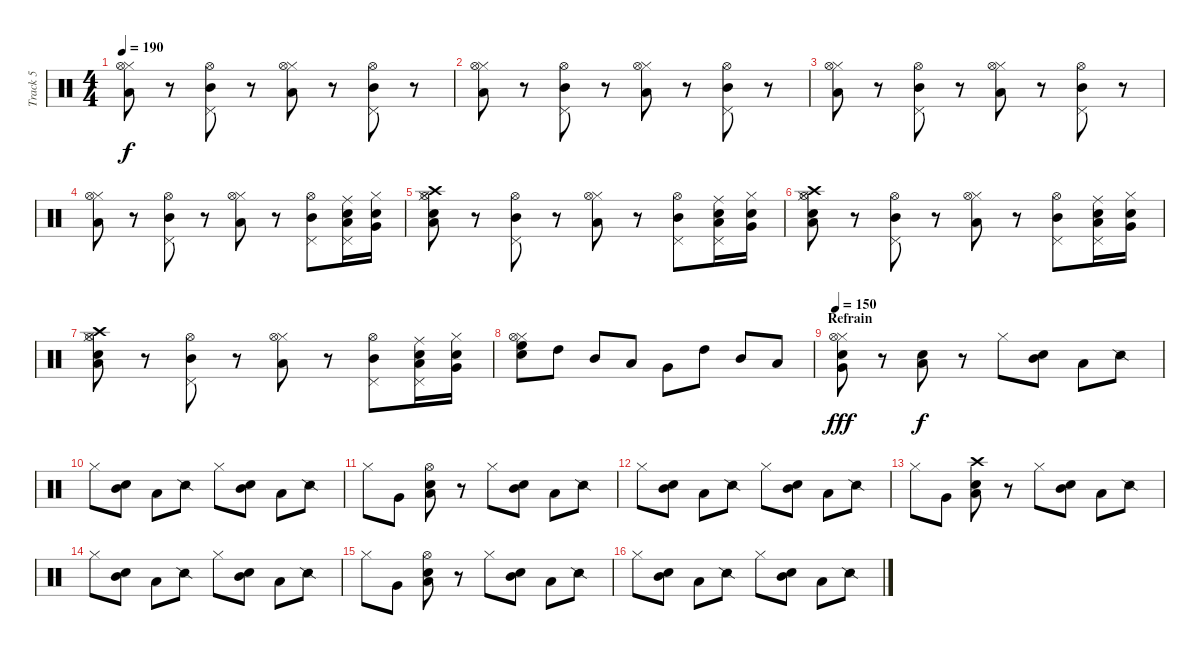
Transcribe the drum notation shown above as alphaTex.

\track ("Track 5" "Track 5") {instrument percussion}
\staff {score}
\articulation defaults
\ts (4 4)
\tempo 190
\clef neutral
\ks c
("Low Tom (hit)" "Hi-Hat (closed)" "Hi-Hat (open)").8{dy f} r.8 ("Mid Tom (hit)" "Pedal Hi-Hat (hit)" "Hi-Hat (open)").8 r.8 ("Low Tom (hit)" "Hi-Hat (closed)" "Hi-Hat (open)").8 r.8 ("Mid Tom (hit)" "Pedal Hi-Hat (hit)" "Hi-Hat (open)").8 r.8 |
("Low Tom (hit)" "Hi-Hat (closed)" "Hi-Hat (open)").8 r.8 ("Mid Tom (hit)" "Pedal Hi-Hat (hit)" "Hi-Hat (open)").8 r.8 ("Low Tom (hit)" "Hi-Hat (closed)" "Hi-Hat (open)").8 r.8 ("Mid Tom (hit)" "Pedal Hi-Hat (hit)" "Hi-Hat (open)").8 r.8 |
("Low Tom (hit)" "Hi-Hat (closed)" "Hi-Hat (open)").8 r.8 ("Mid Tom (hit)" "Pedal Hi-Hat (hit)" "Hi-Hat (open)").8 r.8 ("Low Tom (hit)" "Hi-Hat (closed)" "Hi-Hat (open)").8 r.8 ("Mid Tom (hit)" "Pedal Hi-Hat (hit)" "Hi-Hat (open)").8 r.8 |
("Low Tom (hit)" "Hi-Hat (closed)" "Hi-Hat (open)").8 r.8 ("Mid Tom (hit)" "Pedal Hi-Hat (hit)" "Hi-Hat (open)").8 r.8 ("Low Tom (hit)" "Hi-Hat (closed)" "Hi-Hat (open)").8 r.8 ("Mid Tom (hit)" "Pedal Hi-Hat (hit)" "Hi-Hat (open)").8 ("Low Tom (hit)" "Pedal Hi-Hat (hit)" "Ride (middle)" "Electric Snare (hit)").16 ("Very Low Tom (hit)" "Hi-Hat (closed)" "Snare (hit) 2").16 |
("Low Tom (hit)" "Hi-Hat (closed)" "Hi-Hat (open)" "Crash high (hit)" "Electric Snare (hit)").8 r.8 ("Mid Tom (hit)" "Pedal Hi-Hat (hit)" "Hi-Hat (open)").8 r.8 ("Low Tom (hit)" "Hi-Hat (closed)" "Hi-Hat (open)").8 r.8 ("Mid Tom (hit)" "Pedal Hi-Hat (hit)" "Hi-Hat (open)").8 ("Low Tom (hit)" "Pedal Hi-Hat (hit)" "Ride (middle)" "Electric Snare (hit)").16 ("Very Low Tom (hit)" "Hi-Hat (closed)" "Snare (hit) 2").16 |
("Low Tom (hit)" "Hi-Hat (closed)" "Hi-Hat (open)" "Crash high (hit)" "Electric Snare (hit)").8 r.8 ("Mid Tom (hit)" "Pedal Hi-Hat (hit)" "Hi-Hat (open)").8 r.8 ("Low Tom (hit)" "Hi-Hat (closed)" "Hi-Hat (open)").8 r.8 ("Mid Tom (hit)" "Pedal Hi-Hat (hit)" "Hi-Hat (open)").8 ("Low Tom (hit)" "Pedal Hi-Hat (hit)" "Ride (middle)" "Electric Snare (hit)").16 ("Very Low Tom (hit)" "Hi-Hat (closed)" "Snare (hit) 2").16 |
("Low Tom (hit)" "Hi-Hat (closed)" "Hi-Hat (open)" "Crash high (hit)" "Electric Snare (hit)").8 r.8 ("Mid Tom (hit)" "Pedal Hi-Hat (hit)" "Hi-Hat (open)").8 r.8 ("Low Tom (hit)" "Hi-Hat (closed)" "Hi-Hat (open)").8 r.8 ("Mid Tom (hit)" "Pedal Hi-Hat (hit)" "Hi-Hat (open)").8 ("Low Tom (hit)" "Pedal Hi-Hat (hit)" "Ride (middle)" "Electric Snare (hit)").16 ("Very Low Tom (hit)" "Hi-Hat (closed)" "Snare (hit) 2").16 |
("High Floor Tom (hit)" "Hi-Hat (closed)" "Hi-Hat (open)" "Snare (hit) 2").8 "High Tom (hit)".8 "Mid Tom (hit)".8 "Low Tom (hit)".8 "Very Low Tom (hit)".8 "High Tom (hit)".8 "Mid Tom (hit)".8 "Low Tom (hit)".8 |
\section ("" "Refrain")
\tempo 150
("Very Low Tom (hit)" "Hi-Hat (closed)" "Hi-Hat (open)" "Electric Snare (hit)").8{dy fff} r.8 ("Low Tom (hit)" "Snare (hit) 2").8{dy f} r.8 "Hi-Hat (closed)".8 ("Mid Tom (hit)" "Electric Snare (hit)").8 "Low Tom (hit)".8 "Snare (side stick) 2".8 |
"Hi-Hat (closed)".8 ("Mid Tom (hit)" "Electric Snare (hit)").8 "Low Tom (hit)".8 "Snare (side stick) 2".8 "Hi-Hat (closed)".8 ("Mid Tom (hit)" "Electric Snare (hit)").8 "Low Tom (hit)".8 "Snare (side stick) 2".8 |
"Hi-Hat (closed)".8 "Very Low Tom (hit)".8 ("Low Tom (hit)" "Snare (hit) 2" "Hi-Hat (open)").8 r.8 "Hi-Hat (closed)".8 ("Mid Tom (hit)" "Electric Snare (hit)").8 "Low Tom (hit)".8 "Snare (side stick) 2".8 |
"Hi-Hat (closed)".8 ("Mid Tom (hit)" "Electric Snare (hit)").8 "Low Tom (hit)".8 "Snare (side stick) 2".8 "Hi-Hat (closed)".8 ("Mid Tom (hit)" "Electric Snare (hit)").8 "Low Tom (hit)".8 "Snare (side stick) 2".8 |
"Hi-Hat (closed)".8 "Very Low Tom (hit)".8 ("Low Tom (hit)" "Snare (hit) 2" "Crash high (hit)").8 r.8 "Hi-Hat (closed)".8 ("Mid Tom (hit)" "Electric Snare (hit)").8 "Low Tom (hit)".8 "Snare (side stick) 2".8 |
"Hi-Hat (closed)".8 ("Mid Tom (hit)" "Electric Snare (hit)").8 "Low Tom (hit)".8 "Snare (side stick) 2".8 "Hi-Hat (closed)".8 ("Mid Tom (hit)" "Electric Snare (hit)").8 "Low Tom (hit)".8 "Snare (side stick) 2".8 |
"Hi-Hat (closed)".8 "Very Low Tom (hit)".8 ("Low Tom (hit)" "Snare (hit) 2" "Hi-Hat (open)").8 r.8 "Hi-Hat (closed)".8 ("Mid Tom (hit)" "Electric Snare (hit)").8 "Low Tom (hit)".8 "Snare (side stick) 2".8 |
"Hi-Hat (closed)".8 ("Mid Tom (hit)" "Electric Snare (hit)").8 "Low Tom (hit)".8 "Snare (side stick) 2".8 "Hi-Hat (closed)".8 ("Mid Tom (hit)" "Electric Snare (hit)").8 "Low Tom (hit)".8 "Snare (side stick) 2".8
